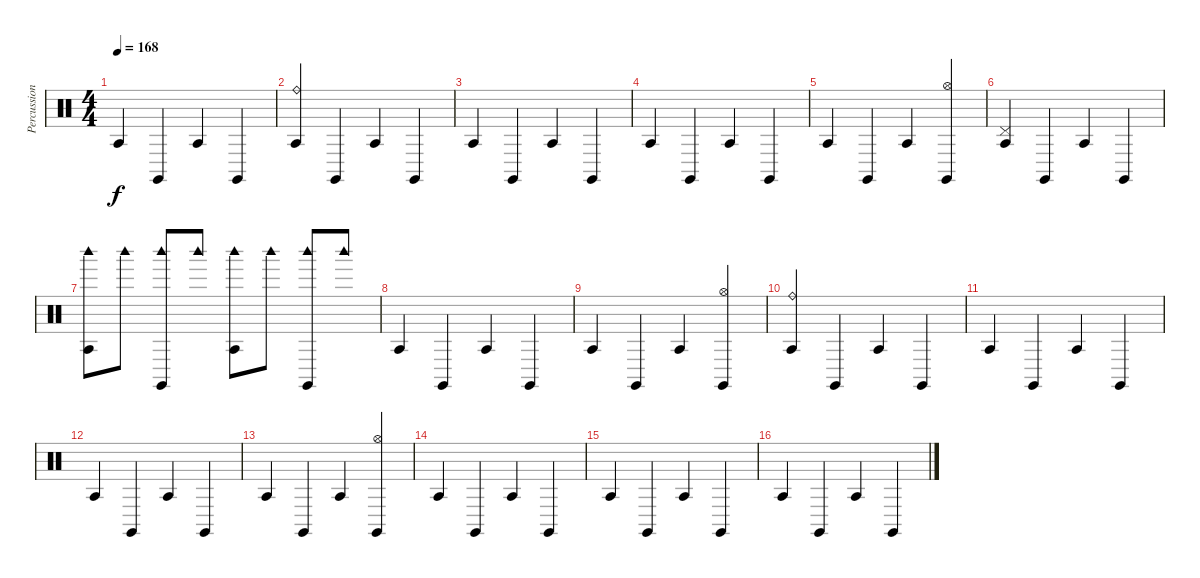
\track ("Percussion" "Percussion") {instrument percussion}
\staff {score}
\articulation defaults
\ts (4 4)
\tempo 168
\clef neutral
\ks c "Agogo tow (hit)".4{dy f} "Claves (hit)".4 "Agogo tow (hit)".4 "Claves (hit)".4
|
("Ride (bell)" "Agogo tow (hit)").4 "Claves (hit)".4 "Agogo tow (hit)".4 "Claves (hit)".4 |
"Agogo tow (hit)".4 "Claves (hit)".4 "Agogo tow (hit)".4 "Claves (hit)".4 |
"Agogo tow (hit)".4 "Claves (hit)".4 "Agogo tow (hit)".4 "Claves (hit)".4 |
"Agogo tow (hit)".4 "Claves (hit)".4 "Agogo tow (hit)".4 ("Hi-Hat (open)" "Claves (hit)").4 |
("Pedal Hi-Hat (hit)" "Agogo tow (hit)").4 "Claves (hit)".4 "Agogo tow (hit)".4 "Claves (hit)".4 |
("Woodblock high (hit)" "Agogo tow (hit)").8 "Woodblock high (hit)".8 ("Woodblock high (hit)" "Claves (hit)").8 "Woodblock high (hit)".8 ("Woodblock high (hit)" "Agogo tow (hit)").8 "Woodblock high (hit)".8 ("Woodblock high (hit)" "Claves (hit)").8 "Woodblock high (hit)".8 |
"Agogo tow (hit)".4 "Claves (hit)".4 "Agogo tow (hit)".4 "Claves (hit)".4 |
"Agogo tow (hit)".4 "Claves (hit)".4 "Agogo tow (hit)".4 ("Hi-Hat (open)" "Claves (hit)").4 |
("Ride (bell)" "Agogo tow (hit)").4 "Claves (hit)".4 "Agogo tow (hit)".4 "Claves (hit)".4 |
"Agogo tow (hit)".4 "Claves (hit)".4 "Agogo tow (hit)".4 "Claves (hit)".4 |
"Agogo tow (hit)".4 "Claves (hit)".4 "Agogo tow (hit)".4 "Claves (hit)".4 |
"Agogo tow (hit)".4 "Claves (hit)".4 "Agogo tow (hit)".4 ("Hi-Hat (open)" "Claves (hit)").4 |
"Agogo tow (hit)".4 "Claves (hit)".4 "Agogo tow (hit)".4 "Claves (hit)".4 |
"Agogo tow (hit)".4 "Claves (hit)".4 "Agogo tow (hit)".4 "Claves (hit)".4 |
"Agogo tow (hit)".4 "Claves (hit)".4 "Agogo tow (hit)".4 "Claves (hit)".4
